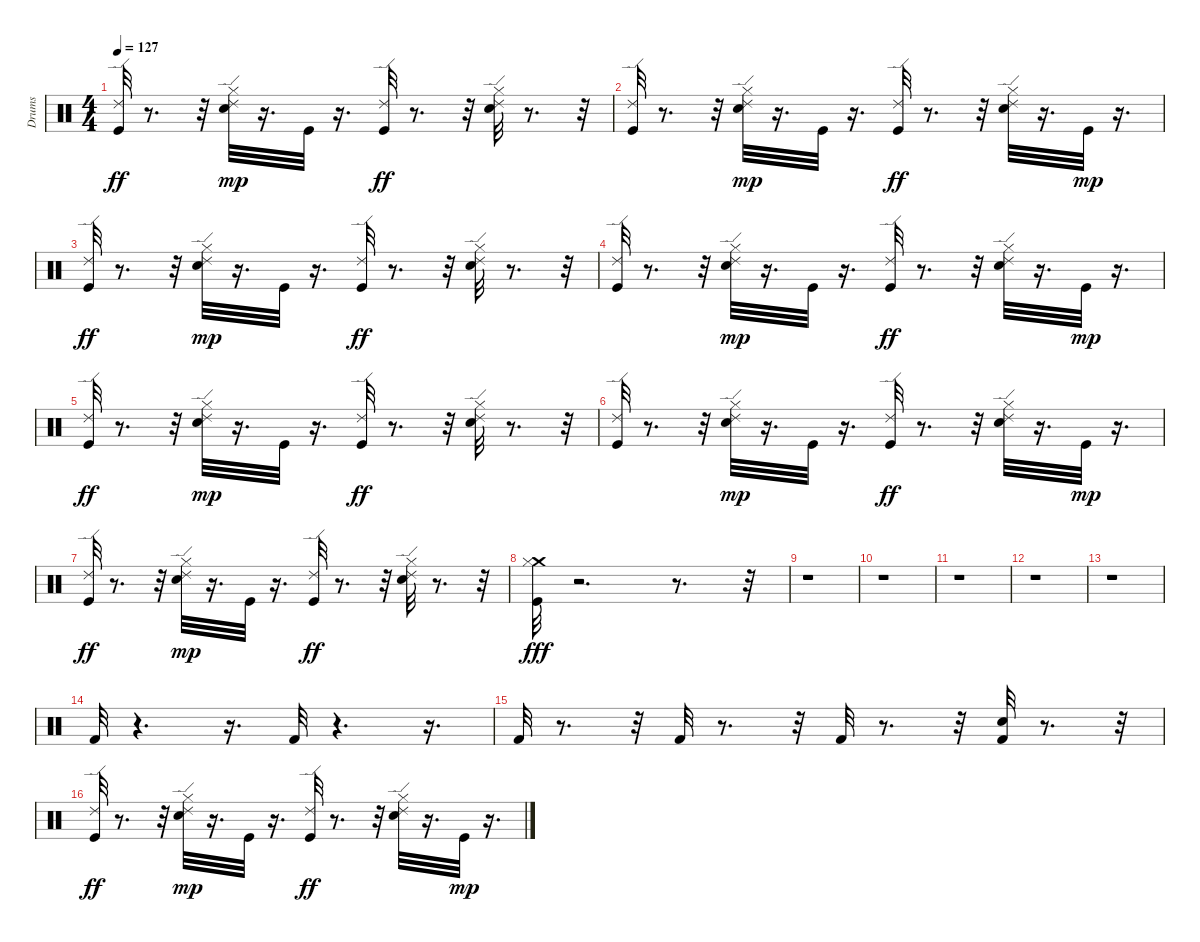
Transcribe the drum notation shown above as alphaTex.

\track (" Drums" " Drums") {instrument percussion}
\staff {score}
\articulation defaults
\ts (4 4)
\tempo 127
\clef neutral
\ks c
("Kick (hit)" "Ride (edge) 2").32{dy ff} r.8{d} r.32 ("Electric Snare (hit)" "Hi-Hat (closed)" "Ride (edge) 2").32{dy mp} r.16{d} "Kick (hit)".32 r.16{d} ("Kick (hit)" "Ride (edge) 2").32{dy ff} r.8{d} r.32 ("Electric Snare (hit)" "Hi-Hat (closed)" "Ride (edge) 2").32 r.8{d} r.32 |
("Kick (hit)" "Ride (edge) 2").32 r.8{d} r.32 ("Electric Snare (hit)" "Hi-Hat (closed)" "Ride (edge) 2").32{dy mp} r.16{d} "Kick (hit)".32 r.16{d} ("Kick (hit)" "Ride (edge) 2").32{dy ff} r.8{d} r.32 ("Electric Snare (hit)" "Hi-Hat (closed)" "Ride (edge) 2").32 r.16{d} "Kick (hit)".32{dy mp} r.16{d} |
("Kick (hit)" "Ride (edge) 2").32{dy ff} r.8{d} r.32 ("Electric Snare (hit)" "Hi-Hat (closed)" "Ride (edge) 2").32{dy mp} r.16{d} "Kick (hit)".32 r.16{d} ("Kick (hit)" "Ride (edge) 2").32{dy ff} r.8{d} r.32 ("Electric Snare (hit)" "Hi-Hat (closed)" "Ride (edge) 2").32 r.8{d} r.32 |
("Kick (hit)" "Ride (edge) 2").32 r.8{d} r.32 ("Electric Snare (hit)" "Hi-Hat (closed)" "Ride (edge) 2").32{dy mp} r.16{d} "Kick (hit)".32 r.16{d} ("Kick (hit)" "Ride (edge) 2").32{dy ff} r.8{d} r.32 ("Electric Snare (hit)" "Hi-Hat (closed)" "Ride (edge) 2").32 r.16{d} "Kick (hit)".32{dy mp} r.16{d} |
("Kick (hit)" "Ride (edge) 2").32{dy ff} r.8{d} r.32 ("Electric Snare (hit)" "Hi-Hat (closed)" "Ride (edge) 2").32{dy mp} r.16{d} "Kick (hit)".32 r.16{d} ("Kick (hit)" "Ride (edge) 2").32{dy ff} r.8{d} r.32 ("Electric Snare (hit)" "Hi-Hat (closed)" "Ride (edge) 2").32 r.8{d} r.32 |
("Kick (hit)" "Ride (edge) 2").32 r.8{d} r.32 ("Electric Snare (hit)" "Hi-Hat (closed)" "Ride (edge) 2").32{dy mp} r.16{d} "Kick (hit)".32 r.16{d} ("Kick (hit)" "Ride (edge) 2").32{dy ff} r.8{d} r.32 ("Electric Snare (hit)" "Hi-Hat (closed)" "Ride (edge) 2").32 r.16{d} "Kick (hit)".32{dy mp} r.16{d} |
("Kick (hit)" "Ride (edge) 2").32{dy ff} r.8{d} r.32 ("Electric Snare (hit)" "Hi-Hat (closed)" "Ride (edge) 2").32{dy mp} r.16{d} "Kick (hit)".32 r.16{d} ("Kick (hit)" "Ride (edge) 2").32{dy ff} r.8{d} r.32 ("Electric Snare (hit)" "Hi-Hat (closed)" "Ride (edge) 2").32 r.8{d} r.32 |
("Crash medium (hit)" "Hi-Hat (closed)" "Kick (hit)").32{dy fff} r.2{d} r.8{d} r.32 |
r.1 |
r.1 |
r.1 |
r.1 |
r.1 |
"Kick (hit) 2".32 r.4{d} r.16{d} "Kick (hit) 2".32 r.4{d} r.16{d} |
"Kick (hit) 2".32 r.8{d} r.32 "Kick (hit) 2".32 r.8{d} r.32 "Kick (hit) 2".32 r.8{d} r.32 ("Snare (hit) 2" "Kick (hit) 2").32 r.8{d} r.32 |
("Ride (edge) 2" "Kick (hit)").32{dy ff} r.8{d} r.32 ("Electric Snare (hit)" "Hi-Hat (closed)" "Ride (edge) 2").32{dy mp} r.16{d} "Kick (hit)".32 r.16{d} ("Kick (hit)" "Ride (edge) 2").32{dy ff} r.8{d} r.32 ("Electric Snare (hit)" "Hi-Hat (closed)" "Ride (edge) 2").32 r.16{d} "Kick (hit)".32{dy mp} r.16{d}
